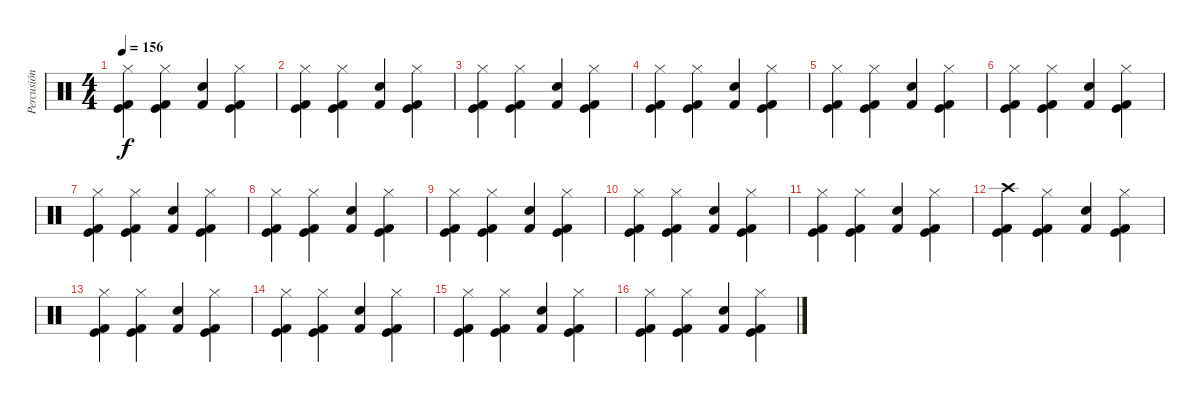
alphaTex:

\track ("Percusión" "Percusión") {instrument percussion}
\staff {score}
\articulation defaults
\ts (4 4)
\tempo 156
\clef neutral
\ks c
("Kick (hit) 2" "Kick (hit)" "Hi-Hat (closed)").4{dy f} ("Kick (hit) 2" "Kick (hit)" "Hi-Hat (closed)").4 ("Kick (hit) 2" "Snare (hit) 2").4 ("Kick (hit) 2" "Kick (hit)" "Hi-Hat (closed)").4 |
("Kick (hit) 2" "Kick (hit)" "Hi-Hat (closed)").4 ("Kick (hit) 2" "Kick (hit)" "Hi-Hat (closed)").4 ("Kick (hit) 2" "Snare (hit) 2").4 ("Kick (hit) 2" "Kick (hit)" "Hi-Hat (closed)").4 |
("Kick (hit) 2" "Kick (hit)" "Hi-Hat (closed)").4 ("Kick (hit) 2" "Kick (hit)" "Hi-Hat (closed)").4 ("Kick (hit) 2" "Snare (hit) 2").4 ("Kick (hit) 2" "Kick (hit)" "Hi-Hat (closed)").4 |
("Kick (hit) 2" "Kick (hit)" "Hi-Hat (closed)").4 ("Kick (hit) 2" "Kick (hit)" "Hi-Hat (closed)").4 ("Kick (hit) 2" "Snare (hit) 2").4 ("Kick (hit) 2" "Kick (hit)" "Hi-Hat (closed)").4 |
("Kick (hit) 2" "Kick (hit)" "Hi-Hat (closed)").4 ("Kick (hit) 2" "Kick (hit)" "Hi-Hat (closed)").4 ("Kick (hit) 2" "Snare (hit) 2").4 ("Kick (hit) 2" "Kick (hit)" "Hi-Hat (closed)").4 |
("Kick (hit) 2" "Kick (hit)" "Hi-Hat (closed)").4 ("Kick (hit) 2" "Kick (hit)" "Hi-Hat (closed)").4 ("Kick (hit) 2" "Snare (hit) 2").4 ("Kick (hit) 2" "Kick (hit)" "Hi-Hat (closed)").4 |
("Kick (hit) 2" "Kick (hit)" "Hi-Hat (closed)").4 ("Kick (hit) 2" "Kick (hit)" "Hi-Hat (closed)").4 ("Kick (hit) 2" "Snare (hit) 2").4 ("Kick (hit) 2" "Kick (hit)" "Hi-Hat (closed)").4 |
("Kick (hit) 2" "Kick (hit)" "Hi-Hat (closed)").4 ("Kick (hit) 2" "Kick (hit)" "Hi-Hat (closed)").4 ("Kick (hit) 2" "Snare (hit) 2").4 ("Kick (hit) 2" "Kick (hit)" "Hi-Hat (closed)").4 |
("Kick (hit) 2" "Kick (hit)" "Hi-Hat (closed)").4 ("Kick (hit) 2" "Kick (hit)" "Hi-Hat (closed)").4 ("Kick (hit) 2" "Snare (hit) 2").4 ("Kick (hit) 2" "Kick (hit)" "Hi-Hat (closed)").4 |
("Kick (hit) 2" "Kick (hit)" "Hi-Hat (closed)").4 ("Kick (hit) 2" "Kick (hit)" "Hi-Hat (closed)").4 ("Kick (hit) 2" "Snare (hit) 2").4 ("Kick (hit) 2" "Kick (hit)" "Hi-Hat (closed)").4 |
("Kick (hit) 2" "Kick (hit)" "Hi-Hat (closed)").4 ("Kick (hit) 2" "Kick (hit)" "Hi-Hat (closed)").4 ("Kick (hit) 2" "Snare (hit) 2").4 ("Kick (hit) 2" "Kick (hit)" "Hi-Hat (closed)").4 |
("Kick (hit) 2" "Kick (hit)" "Crash high (hit)").4 ("Kick (hit) 2" "Kick (hit)" "Hi-Hat (closed)").4 ("Kick (hit) 2" "Snare (hit) 2").4 ("Kick (hit) 2" "Kick (hit)" "Hi-Hat (closed)").4 |
("Kick (hit) 2" "Kick (hit)" "Hi-Hat (closed)").4 ("Kick (hit) 2" "Kick (hit)" "Hi-Hat (closed)").4 ("Kick (hit) 2" "Snare (hit) 2").4 ("Kick (hit) 2" "Kick (hit)" "Hi-Hat (closed)").4 |
("Kick (hit) 2" "Kick (hit)" "Hi-Hat (closed)").4 ("Kick (hit) 2" "Kick (hit)" "Hi-Hat (closed)").4 ("Kick (hit) 2" "Snare (hit) 2").4 ("Kick (hit) 2" "Kick (hit)" "Hi-Hat (closed)").4 |
("Kick (hit) 2" "Kick (hit)" "Hi-Hat (closed)").4 ("Kick (hit) 2" "Kick (hit)" "Hi-Hat (closed)").4 ("Kick (hit) 2" "Snare (hit) 2").4 ("Kick (hit) 2" "Kick (hit)" "Hi-Hat (closed)").4 |
("Kick (hit) 2" "Kick (hit)" "Hi-Hat (closed)").4 ("Kick (hit) 2" "Kick (hit)" "Hi-Hat (closed)").4 ("Kick (hit) 2" "Snare (hit) 2").4 ("Kick (hit) 2" "Kick (hit)" "Hi-Hat (closed)").4
